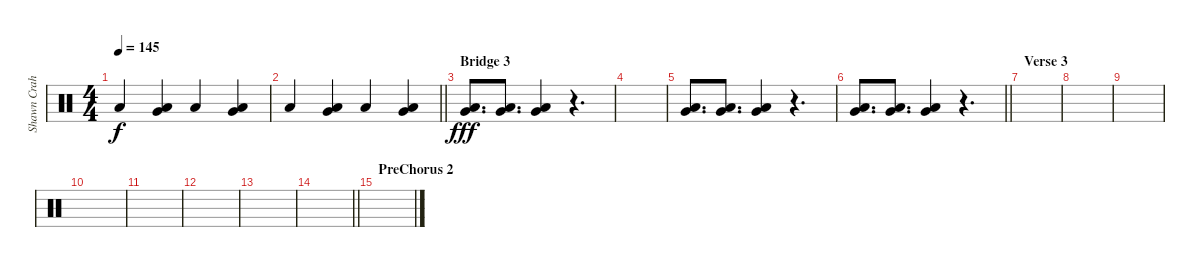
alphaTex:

\track ("Shawn Crahan" "Shawn Crah") {instrument percussion}
\staff {score}
\articulation defaults
\ts (4 4)
\tempo 145
\clef neutral
\ks c "Low Floor Tom (hit)".4{dy f}
("Very Low Tom (hit)" "Low Floor Tom (hit)").4 "Low Floor Tom (hit)".4 ("Very Low Tom (hit)" "Low Floor Tom (hit)").4 |
\barLineRight lightlight "Low Floor Tom (hit)".4
("Very Low Tom (hit)" "Low Floor Tom (hit)").4 "Low Floor Tom (hit)".4 ("Very Low Tom (hit)" "Low Floor Tom (hit)").4 |
\section ("" "Bridge 3")
("Very Low Tom (hit)" "Low Floor Tom (hit)").8{d dy fff} ("Very Low Tom (hit)" "Low Floor Tom (hit)").8{d} ("Very Low Tom (hit)" "Low Floor Tom (hit)").4 r.4{d} |
|
("Very Low Tom (hit)" "Low Floor Tom (hit)").8{d} ("Very Low Tom (hit)" "Low Floor Tom (hit)").8{d} ("Very Low Tom (hit)" "Low Floor Tom (hit)").4 r.4{d} |
\barLineRight lightlight
("Very Low Tom (hit)" "Low Floor Tom (hit)").8{d} ("Very Low Tom (hit)" "Low Floor Tom (hit)").8{d} ("Very Low Tom (hit)" "Low Floor Tom (hit)").4 r.4{d} |
\section ("" "Verse 3")
|
|
|
|
|
|
|
\barLineRight lightlight
|
\section ("" "PreChorus 2")
